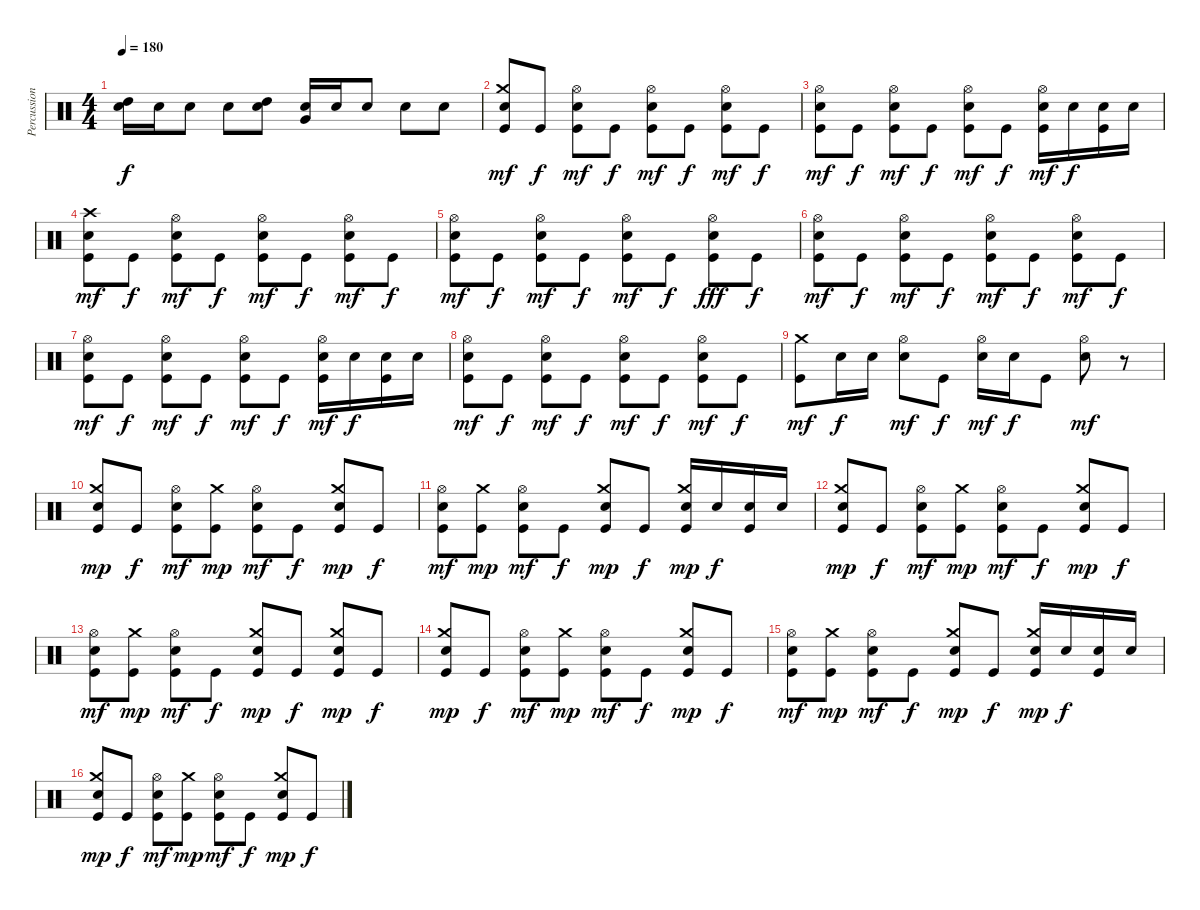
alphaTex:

\track ("Percussion" "Percussion") {instrument percussion}
\staff {score}
\articulation defaults
\ts (4 4)
\tempo 180
\clef neutral
\ks c
("High Tom (hit)" "Snare (hit) 2").16{dy f} "Snare (hit) 2".16 "Snare (hit) 2".8 "Snare (hit) 2".8 ("High Tom (hit)" "Snare (hit) 2").8 ("Very Low Tom (hit)" "Snare (hit) 2").16 "Snare (hit) 2".16 "Snare (hit) 2".8 "Snare (hit) 2".8 "Snare (hit) 2".8 |
("Crash medium (hit)" "Snare (hit) 2" "Kick (hit)").8{dy mf} "Kick (hit)".8{dy f} ("Hi-Hat (open)" "Snare (hit) 2" "Kick (hit)").8{dy mf} "Kick (hit)".8{dy f} ("Hi-Hat (open)" "Snare (hit) 2" "Kick (hit)").8{dy mf} "Kick (hit)".8{dy f} ("Hi-Hat (open)" "Snare (hit) 2" "Kick (hit)").8{dy mf} "Kick (hit)".8{dy f} |
("Hi-Hat (open)" "Snare (hit) 2" "Kick (hit)").8{dy mf} "Kick (hit)".8{dy f} ("Hi-Hat (open)" "Snare (hit) 2" "Kick (hit)").8{dy mf} "Kick (hit)".8{dy f} ("Hi-Hat (open)" "Snare (hit) 2" "Kick (hit)").8{dy mf} "Kick (hit)".8{dy f} ("Hi-Hat (open)" "Snare (hit) 2" "Kick (hit)").16{dy mf} "Snare (hit) 2".16{dy f} ("Snare (hit) 2" "Kick (hit)").16 "Snare (hit) 2".16 |
("Crash high (hit)" "Snare (hit) 2" "Kick (hit)").8{dy mf} "Kick (hit)".8{dy f} ("Hi-Hat (open)" "Snare (hit) 2" "Kick (hit)").8{dy mf} "Kick (hit)".8{dy f} ("Hi-Hat (open)" "Snare (hit) 2" "Kick (hit)").8{dy mf} "Kick (hit)".8{dy f} ("Hi-Hat (open)" "Snare (hit) 2" "Kick (hit)").8{dy mf} "Kick (hit)".8{dy f} |
("Hi-Hat (open)" "Snare (hit) 2" "Kick (hit)").8{dy mf} "Kick (hit)".8{dy f} ("Hi-Hat (open)" "Snare (hit) 2" "Kick (hit)").8{dy mf} "Kick (hit)".8{dy f} ("Hi-Hat (open)" "Snare (hit) 2" "Kick (hit)").8{dy mf} "Kick (hit)".8{dy f} ("Hi-Hat (open)" "Snare (hit) 2" "Kick (hit)").8{dy fff} "Kick (hit)".8{dy f} |
("Hi-Hat (open)" "Snare (hit) 2" "Kick (hit)").8{dy mf} "Kick (hit)".8{dy f} ("Hi-Hat (open)" "Snare (hit) 2" "Kick (hit)").8{dy mf} "Kick (hit)".8{dy f} ("Hi-Hat (open)" "Snare (hit) 2" "Kick (hit)").8{dy mf} "Kick (hit)".8{dy f} ("Hi-Hat (open)" "Snare (hit) 2" "Kick (hit)").8{dy mf} "Kick (hit)".8{dy f} |
("Hi-Hat (open)" "Snare (hit) 2" "Kick (hit)").8{dy mf} "Kick (hit)".8{dy f} ("Hi-Hat (open)" "Snare (hit) 2" "Kick (hit)").8{dy mf} "Kick (hit)".8{dy f} ("Hi-Hat (open)" "Snare (hit) 2" "Kick (hit)").8{dy mf} "Kick (hit)".8{dy f} ("Hi-Hat (open)" "Snare (hit) 2" "Kick (hit)").16{dy mf} "Snare (hit) 2".16{dy f} ("Snare (hit) 2" "Kick (hit)").16 "Snare (hit) 2".16 |
("Hi-Hat (open)" "Snare (hit) 2" "Kick (hit)").8{dy mf} "Kick (hit)".8{dy f} ("Hi-Hat (open)" "Snare (hit) 2" "Kick (hit)").8{dy mf} "Kick (hit)".8{dy f} ("Hi-Hat (open)" "Snare (hit) 2" "Kick (hit)").8{dy mf} "Kick (hit)".8{dy f} ("Hi-Hat (open)" "Snare (hit) 2" "Kick (hit)").8{dy mf} "Kick (hit)".8{dy f} |
("Crash medium (hit)" "Kick (hit)").8{dy mf} "Snare (hit) 2".16{dy f} "Snare (hit) 2".16 ("Hi-Hat (open)" "Snare (hit) 2").8{dy mf} "Kick (hit)".8{dy f} ("Hi-Hat (open)" "Snare (hit) 2").16{dy mf} "Snare (hit) 2".16{dy f} "Kick (hit)".8 ("Hi-Hat (open)" "Snare (hit) 2").8{dy mf} r.8 |
("Crash medium (hit)" "Snare (hit) 2" "Kick (hit)").8{dy mp} "Kick (hit)".8{dy f} ("Hi-Hat (open)" "Snare (hit) 2" "Kick (hit)").8{dy mf} ("Crash medium (hit)" "Kick (hit)").8{dy mp} ("Hi-Hat (open)" "Snare (hit) 2" "Kick (hit)").8{dy mf} "Kick (hit)".8{dy f} ("Crash medium (hit)" "Snare (hit) 2" "Kick (hit)").8{dy mp} "Kick (hit)".8{dy f} |
("Hi-Hat (open)" "Snare (hit) 2" "Kick (hit)").8{dy mf} ("Crash medium (hit)" "Kick (hit)").8{dy mp} ("Hi-Hat (open)" "Snare (hit) 2" "Kick (hit)").8{dy mf} "Kick (hit)".8{dy f} ("Crash medium (hit)" "Snare (hit) 2" "Kick (hit)").8{dy mp} "Kick (hit)".8{dy f} ("Crash medium (hit)" "Snare (hit) 2" "Kick (hit)").16{dy mp} "Snare (hit) 2".16{dy f} ("Snare (hit) 2" "Kick (hit)").16 "Snare (hit) 2".16 |
("Crash medium (hit)" "Snare (hit) 2" "Kick (hit)").8{dy mp} "Kick (hit)".8{dy f} ("Hi-Hat (open)" "Snare (hit) 2" "Kick (hit)").8{dy mf} ("Crash medium (hit)" "Kick (hit)").8{dy mp} ("Hi-Hat (open)" "Snare (hit) 2" "Kick (hit)").8{dy mf} "Kick (hit)".8{dy f} ("Crash medium (hit)" "Snare (hit) 2" "Kick (hit)").8{dy mp} "Kick (hit)".8{dy f} |
("Hi-Hat (open)" "Snare (hit) 2" "Kick (hit)").8{dy mf} ("Crash medium (hit)" "Kick (hit)").8{dy mp} ("Hi-Hat (open)" "Snare (hit) 2" "Kick (hit)").8{dy mf} "Kick (hit)".8{dy f} ("Crash medium (hit)" "Snare (hit) 2" "Kick (hit)").8{dy mp} "Kick (hit)".8{dy f} ("Crash medium (hit)" "Snare (hit) 2" "Kick (hit)").8{dy mp} "Kick (hit)".8{dy f} |
("Crash medium (hit)" "Snare (hit) 2" "Kick (hit)").8{dy mp} "Kick (hit)".8{dy f} ("Hi-Hat (open)" "Snare (hit) 2" "Kick (hit)").8{dy mf} ("Crash medium (hit)" "Kick (hit)").8{dy mp} ("Hi-Hat (open)" "Snare (hit) 2" "Kick (hit)").8{dy mf} "Kick (hit)".8{dy f} ("Crash medium (hit)" "Snare (hit) 2" "Kick (hit)").8{dy mp} "Kick (hit)".8{dy f} |
("Hi-Hat (open)" "Snare (hit) 2" "Kick (hit)").8{dy mf} ("Crash medium (hit)" "Kick (hit)").8{dy mp} ("Hi-Hat (open)" "Snare (hit) 2" "Kick (hit)").8{dy mf} "Kick (hit)".8{dy f} ("Crash medium (hit)" "Snare (hit) 2" "Kick (hit)").8{dy mp} "Kick (hit)".8{dy f} ("Crash medium (hit)" "Snare (hit) 2" "Kick (hit)").16{dy mp} "Snare (hit) 2".16{dy f} ("Snare (hit) 2" "Kick (hit)").16 "Snare (hit) 2".16 |
("Crash medium (hit)" "Snare (hit) 2" "Kick (hit)").8{dy mp} "Kick (hit)".8{dy f} ("Hi-Hat (open)" "Snare (hit) 2" "Kick (hit)").8{dy mf} ("Crash medium (hit)" "Kick (hit)").8{dy mp} ("Hi-Hat (open)" "Snare (hit) 2" "Kick (hit)").8{dy mf} "Kick (hit)".8{dy f} ("Crash medium (hit)" "Snare (hit) 2" "Kick (hit)").8{dy mp} "Kick (hit)".8{dy f}
